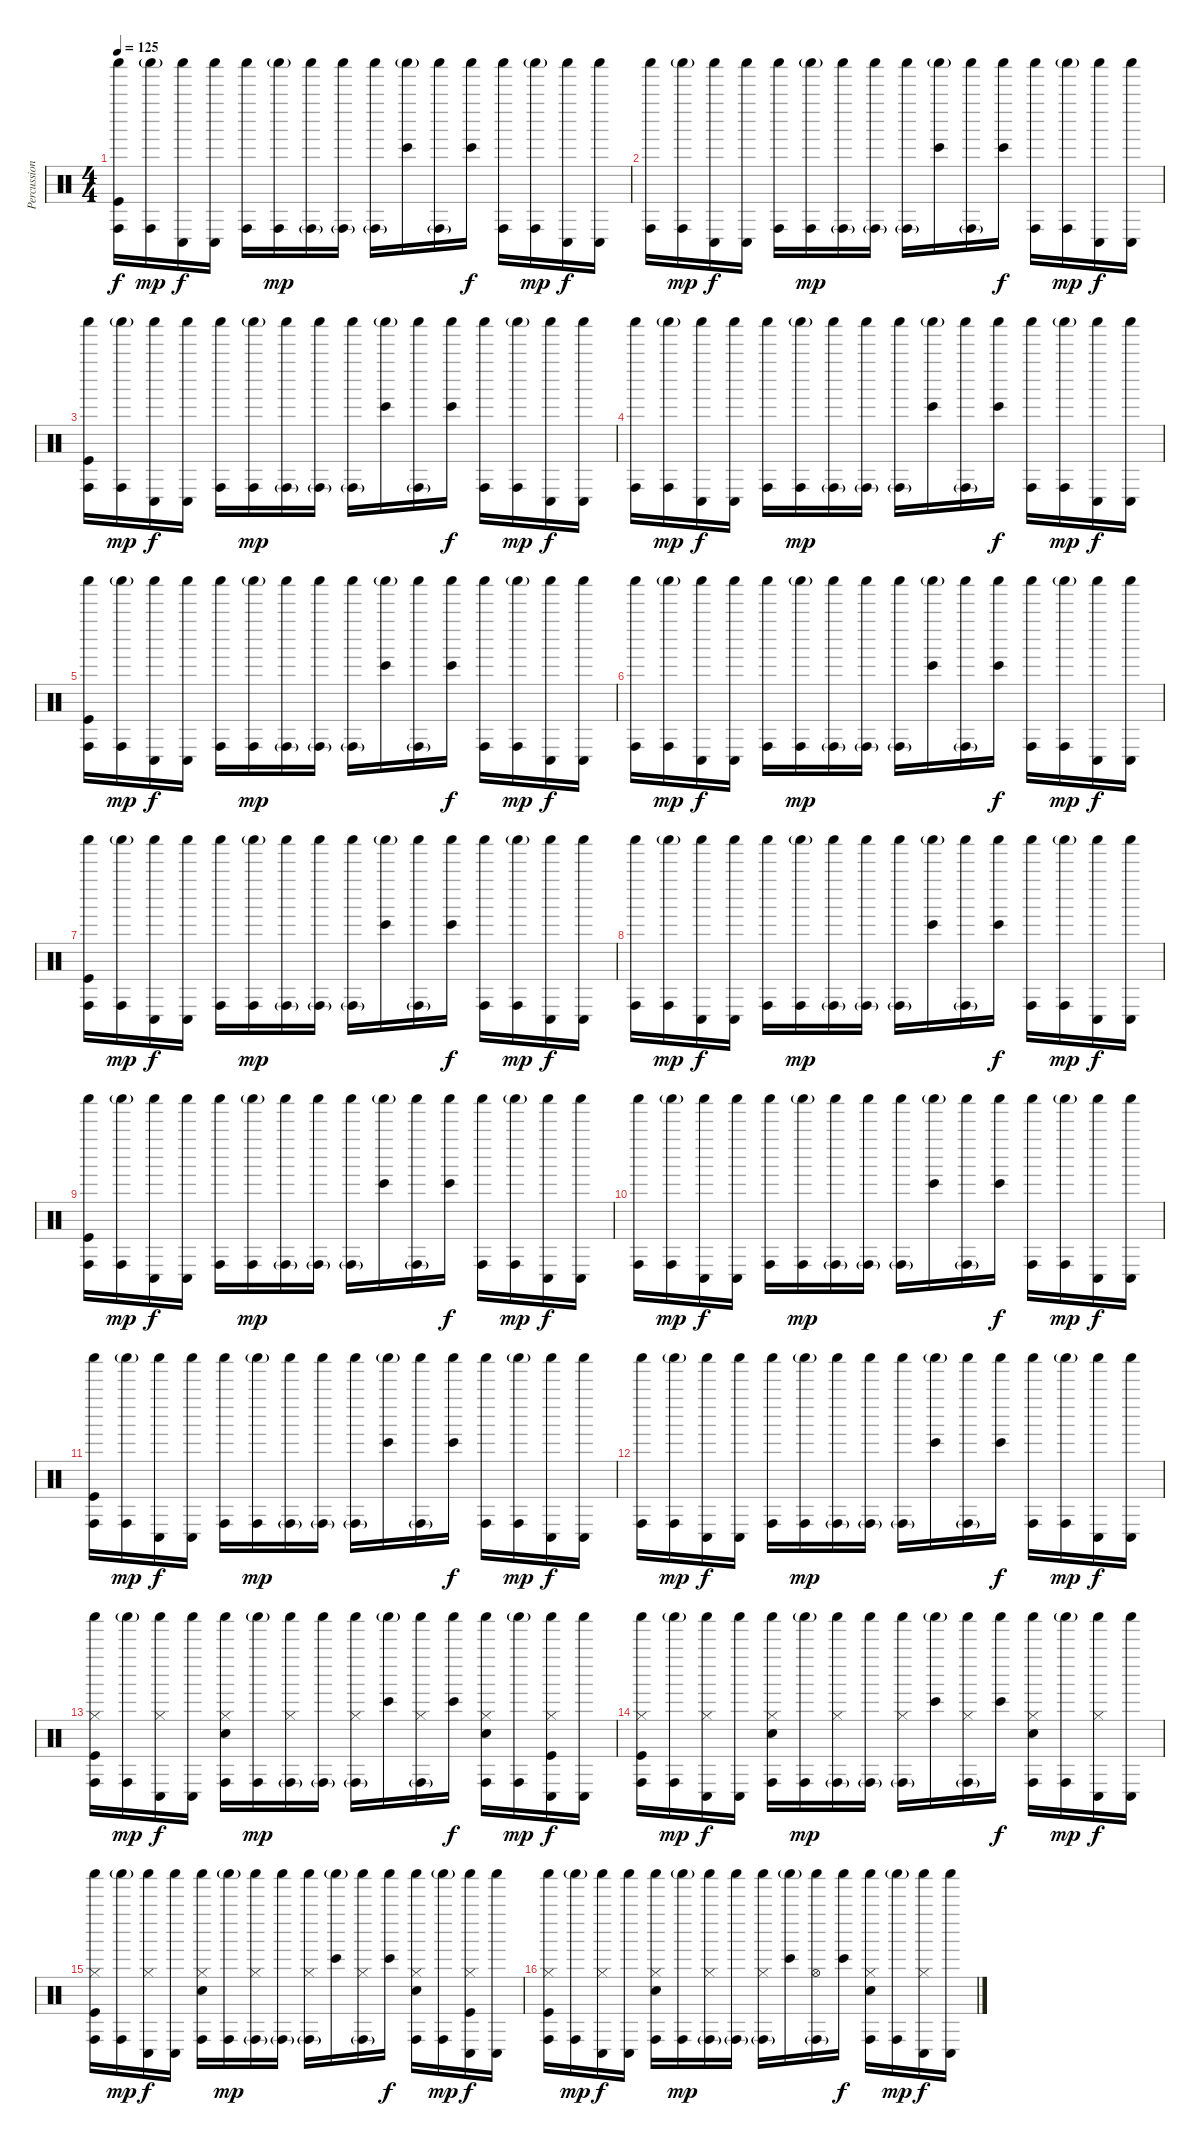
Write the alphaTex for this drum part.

\track ("Percussion" "Percussion") {instrument percussion}
\staff {score}
\articulation defaults
\ts (4 4)
\tempo 125
\clef neutral
\ks c
("Shaker (hit)" "Conga high (hit)" "Kick (hit)").16{dy f} ("Shaker (hit)"{g} "Conga high (hit)").16{dy mp} ("Shaker (hit)" "Conga low (hit)").16{dy f} ("Shaker (hit)" "Conga low (hit)").16 ("Shaker (hit)" "Conga high (hit)").16 ("Shaker (hit)"{g} "Conga high (hit)").16{dy mp} ("Shaker (hit)" "Conga high (hit)"{g}).16 ("Shaker (hit)" "Conga high (hit)"{g}).16 ("Shaker (hit)" "Conga high (hit)"{g}).16 ("Shaker (hit)"{g} "Bongo High (hit)").16 ("Shaker (hit)" "Conga high (hit)"{g}).16 ("Shaker (hit)" "Bongo High (hit)").16{dy f} ("Shaker (hit)" "Conga high (hit)").16 ("Shaker (hit)"{g} "Conga high (hit)").16{dy mp} ("Shaker (hit)" "Conga low (hit)").16{dy f} ("Shaker (hit)" "Conga low (hit)").16 |
("Shaker (hit)" "Conga high (hit)").16 ("Shaker (hit)"{g} "Conga high (hit)").16{dy mp} ("Shaker (hit)" "Conga low (hit)").16{dy f} ("Shaker (hit)" "Conga low (hit)").16 ("Shaker (hit)" "Conga high (hit)").16 ("Shaker (hit)"{g} "Conga high (hit)").16{dy mp} ("Shaker (hit)" "Conga high (hit)"{g}).16 ("Shaker (hit)" "Conga high (hit)"{g}).16 ("Shaker (hit)" "Conga high (hit)"{g}).16 ("Shaker (hit)"{g} "Bongo High (hit)").16 ("Shaker (hit)" "Conga high (hit)"{g}).16 ("Shaker (hit)" "Bongo High (hit)").16{dy f} ("Shaker (hit)" "Conga high (hit)").16 ("Shaker (hit)"{g} "Conga high (hit)").16{dy mp} ("Shaker (hit)" "Conga low (hit)").16{dy f} ("Shaker (hit)" "Conga low (hit)").16 |
("Shaker (hit)" "Conga high (hit)" "Kick (hit)").16 ("Shaker (hit)"{g} "Conga high (hit)").16{dy mp} ("Shaker (hit)" "Conga low (hit)").16{dy f} ("Shaker (hit)" "Conga low (hit)").16 ("Shaker (hit)" "Conga high (hit)").16 ("Shaker (hit)"{g} "Conga high (hit)").16{dy mp} ("Shaker (hit)" "Conga high (hit)"{g}).16 ("Shaker (hit)" "Conga high (hit)"{g}).16 ("Shaker (hit)" "Conga high (hit)"{g}).16 ("Shaker (hit)"{g} "Bongo High (hit)").16 ("Shaker (hit)" "Conga high (hit)"{g}).16 ("Shaker (hit)" "Bongo High (hit)").16{dy f} ("Shaker (hit)" "Conga high (hit)").16 ("Shaker (hit)"{g} "Conga high (hit)").16{dy mp} ("Shaker (hit)" "Conga low (hit)").16{dy f} ("Shaker (hit)" "Conga low (hit)").16 |
("Shaker (hit)" "Conga high (hit)").16 ("Shaker (hit)"{g} "Conga high (hit)").16{dy mp} ("Shaker (hit)" "Conga low (hit)").16{dy f} ("Shaker (hit)" "Conga low (hit)").16 ("Shaker (hit)" "Conga high (hit)").16 ("Shaker (hit)"{g} "Conga high (hit)").16{dy mp} ("Shaker (hit)" "Conga high (hit)"{g}).16 ("Shaker (hit)" "Conga high (hit)"{g}).16 ("Shaker (hit)" "Conga high (hit)"{g}).16 ("Shaker (hit)"{g} "Bongo High (hit)").16 ("Shaker (hit)" "Conga high (hit)"{g}).16 ("Shaker (hit)" "Bongo High (hit)").16{dy f} ("Shaker (hit)" "Conga high (hit)").16 ("Shaker (hit)"{g} "Conga high (hit)").16{dy mp} ("Shaker (hit)" "Conga low (hit)").16{dy f} ("Shaker (hit)" "Conga low (hit)").16 |
("Shaker (hit)" "Conga high (hit)" "Kick (hit)").16 ("Shaker (hit)"{g} "Conga high (hit)").16{dy mp} ("Shaker (hit)" "Conga low (hit)").16{dy f} ("Shaker (hit)" "Conga low (hit)").16 ("Shaker (hit)" "Conga high (hit)").16 ("Shaker (hit)"{g} "Conga high (hit)").16{dy mp} ("Shaker (hit)" "Conga high (hit)"{g}).16 ("Shaker (hit)" "Conga high (hit)"{g}).16 ("Shaker (hit)" "Conga high (hit)"{g}).16 ("Shaker (hit)"{g} "Bongo High (hit)").16 ("Shaker (hit)" "Conga high (hit)"{g}).16 ("Shaker (hit)" "Bongo High (hit)").16{dy f} ("Shaker (hit)" "Conga high (hit)").16 ("Shaker (hit)"{g} "Conga high (hit)").16{dy mp} ("Shaker (hit)" "Conga low (hit)").16{dy f} ("Shaker (hit)" "Conga low (hit)").16 |
("Shaker (hit)" "Conga high (hit)").16 ("Shaker (hit)"{g} "Conga high (hit)").16{dy mp} ("Shaker (hit)" "Conga low (hit)").16{dy f} ("Shaker (hit)" "Conga low (hit)").16 ("Shaker (hit)" "Conga high (hit)").16 ("Shaker (hit)"{g} "Conga high (hit)").16{dy mp} ("Shaker (hit)" "Conga high (hit)"{g}).16 ("Shaker (hit)" "Conga high (hit)"{g}).16 ("Shaker (hit)" "Conga high (hit)"{g}).16 ("Shaker (hit)"{g} "Bongo High (hit)").16 ("Shaker (hit)" "Conga high (hit)"{g}).16 ("Shaker (hit)" "Bongo High (hit)").16{dy f} ("Shaker (hit)" "Conga high (hit)").16 ("Shaker (hit)"{g} "Conga high (hit)").16{dy mp} ("Shaker (hit)" "Conga low (hit)").16{dy f} ("Shaker (hit)" "Conga low (hit)").16 |
("Shaker (hit)" "Conga high (hit)" "Kick (hit)").16 ("Shaker (hit)"{g} "Conga high (hit)").16{dy mp} ("Shaker (hit)" "Conga low (hit)").16{dy f} ("Shaker (hit)" "Conga low (hit)").16 ("Shaker (hit)" "Conga high (hit)").16 ("Shaker (hit)"{g} "Conga high (hit)").16{dy mp} ("Shaker (hit)" "Conga high (hit)"{g}).16 ("Shaker (hit)" "Conga high (hit)"{g}).16 ("Shaker (hit)" "Conga high (hit)"{g}).16 ("Shaker (hit)"{g} "Bongo High (hit)").16 ("Shaker (hit)" "Conga high (hit)"{g}).16 ("Shaker (hit)" "Bongo High (hit)").16{dy f} ("Shaker (hit)" "Conga high (hit)").16 ("Shaker (hit)"{g} "Conga high (hit)").16{dy mp} ("Shaker (hit)" "Conga low (hit)").16{dy f} ("Shaker (hit)" "Conga low (hit)").16 |
("Shaker (hit)" "Conga high (hit)").16 ("Shaker (hit)"{g} "Conga high (hit)").16{dy mp} ("Shaker (hit)" "Conga low (hit)").16{dy f} ("Shaker (hit)" "Conga low (hit)").16 ("Shaker (hit)" "Conga high (hit)").16 ("Shaker (hit)"{g} "Conga high (hit)").16{dy mp} ("Shaker (hit)" "Conga high (hit)"{g}).16 ("Shaker (hit)" "Conga high (hit)"{g}).16 ("Shaker (hit)" "Conga high (hit)"{g}).16 ("Shaker (hit)"{g} "Bongo High (hit)").16 ("Shaker (hit)" "Conga high (hit)"{g}).16 ("Shaker (hit)" "Bongo High (hit)").16{dy f} ("Shaker (hit)" "Conga high (hit)").16 ("Shaker (hit)"{g} "Conga high (hit)").16{dy mp} ("Shaker (hit)" "Conga low (hit)").16{dy f} ("Shaker (hit)" "Conga low (hit)").16 |
("Shaker (hit)" "Conga high (hit)" "Kick (hit)").16 ("Shaker (hit)"{g} "Conga high (hit)").16{dy mp} ("Shaker (hit)" "Conga low (hit)").16{dy f} ("Shaker (hit)" "Conga low (hit)").16 ("Shaker (hit)" "Conga high (hit)").16 ("Shaker (hit)"{g} "Conga high (hit)").16{dy mp} ("Shaker (hit)" "Conga high (hit)"{g}).16 ("Shaker (hit)" "Conga high (hit)"{g}).16 ("Shaker (hit)" "Conga high (hit)"{g}).16 ("Shaker (hit)"{g} "Bongo High (hit)").16 ("Shaker (hit)" "Conga high (hit)"{g}).16 ("Shaker (hit)" "Bongo High (hit)").16{dy f} ("Shaker (hit)" "Conga high (hit)").16 ("Shaker (hit)"{g} "Conga high (hit)").16{dy mp} ("Shaker (hit)" "Conga low (hit)").16{dy f} ("Shaker (hit)" "Conga low (hit)").16 |
("Shaker (hit)" "Conga high (hit)").16 ("Shaker (hit)"{g} "Conga high (hit)").16{dy mp} ("Shaker (hit)" "Conga low (hit)").16{dy f} ("Shaker (hit)" "Conga low (hit)").16 ("Shaker (hit)" "Conga high (hit)").16 ("Shaker (hit)"{g} "Conga high (hit)").16{dy mp} ("Shaker (hit)" "Conga high (hit)"{g}).16 ("Shaker (hit)" "Conga high (hit)"{g}).16 ("Shaker (hit)" "Conga high (hit)"{g}).16 ("Shaker (hit)"{g} "Bongo High (hit)").16 ("Shaker (hit)" "Conga high (hit)"{g}).16 ("Shaker (hit)" "Bongo High (hit)").16{dy f} ("Shaker (hit)" "Conga high (hit)").16 ("Shaker (hit)"{g} "Conga high (hit)").16{dy mp} ("Shaker (hit)" "Conga low (hit)").16{dy f} ("Shaker (hit)" "Conga low (hit)").16 |
("Shaker (hit)" "Conga high (hit)" "Kick (hit)").16 ("Shaker (hit)"{g} "Conga high (hit)").16{dy mp} ("Shaker (hit)" "Conga low (hit)").16{dy f} ("Shaker (hit)" "Conga low (hit)").16 ("Shaker (hit)" "Conga high (hit)").16 ("Shaker (hit)"{g} "Conga high (hit)").16{dy mp} ("Shaker (hit)" "Conga high (hit)"{g}).16 ("Shaker (hit)" "Conga high (hit)"{g}).16 ("Shaker (hit)" "Conga high (hit)"{g}).16 ("Shaker (hit)"{g} "Bongo High (hit)").16 ("Shaker (hit)" "Conga high (hit)"{g}).16 ("Shaker (hit)" "Bongo High (hit)").16{dy f} ("Shaker (hit)" "Conga high (hit)").16 ("Shaker (hit)"{g} "Conga high (hit)").16{dy mp} ("Shaker (hit)" "Conga low (hit)").16{dy f} ("Shaker (hit)" "Conga low (hit)").16 |
("Shaker (hit)" "Conga high (hit)").16 ("Shaker (hit)"{g} "Conga high (hit)").16{dy mp} ("Shaker (hit)" "Conga low (hit)").16{dy f} ("Shaker (hit)" "Conga low (hit)").16 ("Shaker (hit)" "Conga high (hit)").16 ("Shaker (hit)"{g} "Conga high (hit)").16{dy mp} ("Shaker (hit)" "Conga high (hit)"{g}).16 ("Shaker (hit)" "Conga high (hit)"{g}).16 ("Shaker (hit)" "Conga high (hit)"{g}).16 ("Shaker (hit)"{g} "Bongo High (hit)").16 ("Shaker (hit)" "Conga high (hit)"{g}).16 ("Shaker (hit)" "Bongo High (hit)").16{dy f} ("Shaker (hit)" "Conga high (hit)").16 ("Shaker (hit)"{g} "Conga high (hit)").16{dy mp} ("Shaker (hit)" "Conga low (hit)").16{dy f} ("Shaker (hit)" "Conga low (hit)").16 |
("Hi-Hat (closed)" "Shaker (hit)" "Conga high (hit)" "Kick (hit)").16 ("Shaker (hit)"{g} "Conga high (hit)").16{dy mp} ("Hi-Hat (closed)" "Shaker (hit)" "Conga low (hit)").16{dy f} ("Shaker (hit)" "Conga low (hit)").16 ("Hi-Hat (closed)" "Shaker (hit)" "Conga high (hit)" "Electric Snare (hit)").16 ("Shaker (hit)"{g} "Conga high (hit)").16{dy mp} ("Hi-Hat (closed)" "Shaker (hit)" "Conga high (hit)"{g}).16 ("Shaker (hit)" "Conga high (hit)"{g}).16 ("Hi-Hat (closed)" "Shaker (hit)" "Conga high (hit)"{g}).16 ("Shaker (hit)"{g} "Bongo High (hit)").16 ("Hi-Hat (closed)" "Shaker (hit)" "Conga high (hit)"{g}).16 ("Shaker (hit)" "Bongo High (hit)").16{dy f} ("Hi-Hat (closed)" "Shaker (hit)" "Conga high (hit)" "Electric Snare (hit)").16 ("Shaker (hit)"{g} "Conga high (hit)").16{dy mp} ("Hi-Hat (closed)" "Shaker (hit)" "Conga low (hit)" "Kick (hit)").16{dy f} ("Shaker (hit)" "Conga low (hit)").16 |
("Hi-Hat (closed)" "Shaker (hit)" "Conga high (hit)" "Kick (hit)").16 ("Shaker (hit)"{g} "Conga high (hit)").16{dy mp} ("Hi-Hat (closed)" "Shaker (hit)" "Conga low (hit)").16{dy f} ("Shaker (hit)" "Conga low (hit)").16 ("Hi-Hat (closed)" "Shaker (hit)" "Conga high (hit)" "Electric Snare (hit)").16 ("Shaker (hit)"{g} "Conga high (hit)").16{dy mp} ("Hi-Hat (closed)" "Shaker (hit)" "Conga high (hit)"{g}).16 ("Shaker (hit)" "Conga high (hit)"{g}).16 ("Hi-Hat (closed)" "Shaker (hit)" "Conga high (hit)"{g}).16 ("Shaker (hit)"{g} "Bongo High (hit)").16 ("Hi-Hat (closed)" "Shaker (hit)" "Conga high (hit)"{g}).16 ("Shaker (hit)" "Bongo High (hit)").16{dy f} ("Hi-Hat (closed)" "Shaker (hit)" "Conga high (hit)" "Electric Snare (hit)").16 ("Shaker (hit)"{g} "Conga high (hit)").16{dy mp} ("Hi-Hat (closed)" "Shaker (hit)" "Conga low (hit)").16{dy f} ("Shaker (hit)" "Conga low (hit)").16 |
("Hi-Hat (closed)" "Shaker (hit)" "Conga high (hit)" "Kick (hit)").16 ("Shaker (hit)"{g} "Conga high (hit)").16{dy mp} ("Hi-Hat (closed)" "Shaker (hit)" "Conga low (hit)").16{dy f} ("Shaker (hit)" "Conga low (hit)").16 ("Hi-Hat (closed)" "Shaker (hit)" "Conga high (hit)" "Electric Snare (hit)").16 ("Shaker (hit)"{g} "Conga high (hit)").16{dy mp} ("Hi-Hat (closed)" "Shaker (hit)" "Conga high (hit)"{g}).16 ("Shaker (hit)" "Conga high (hit)"{g}).16 ("Hi-Hat (closed)" "Shaker (hit)" "Conga high (hit)"{g}).16 ("Shaker (hit)"{g} "Bongo High (hit)").16 ("Hi-Hat (closed)" "Shaker (hit)" "Conga high (hit)"{g}).16 ("Shaker (hit)" "Bongo High (hit)").16{dy f} ("Hi-Hat (closed)" "Shaker (hit)" "Conga high (hit)" "Electric Snare (hit)").16 ("Shaker (hit)"{g} "Conga high (hit)").16{dy mp} ("Hi-Hat (closed)" "Shaker (hit)" "Conga low (hit)" "Kick (hit)").16{dy f} ("Shaker (hit)" "Conga low (hit)").16 |
("Hi-Hat (closed)" "Shaker (hit)" "Conga high (hit)" "Kick (hit)").16 ("Shaker (hit)"{g} "Conga high (hit)").16{dy mp} ("Hi-Hat (closed)" "Shaker (hit)" "Conga low (hit)").16{dy f} ("Shaker (hit)" "Conga low (hit)").16 ("Hi-Hat (closed)" "Shaker (hit)" "Conga high (hit)" "Electric Snare (hit)").16 ("Shaker (hit)"{g} "Conga high (hit)").16{dy mp} ("Hi-Hat (closed)" "Shaker (hit)" "Conga high (hit)"{g}).16 ("Shaker (hit)" "Conga high (hit)"{g}).16 ("Hi-Hat (closed)" "Shaker (hit)" "Conga high (hit)"{g}).16 ("Shaker (hit)"{g} "Bongo High (hit)").16 ("Hi-Hat (open)" "Shaker (hit)" "Conga high (hit)"{g}).16 ("Shaker (hit)" "Bongo High (hit)").16{dy f} ("Hi-Hat (closed)" "Shaker (hit)" "Conga high (hit)" "Electric Snare (hit)").16 ("Shaker (hit)"{g} "Conga high (hit)").16{dy mp} ("Hi-Hat (closed)" "Shaker (hit)" "Conga low (hit)").16{dy f} ("Shaker (hit)" "Conga low (hit)").16
